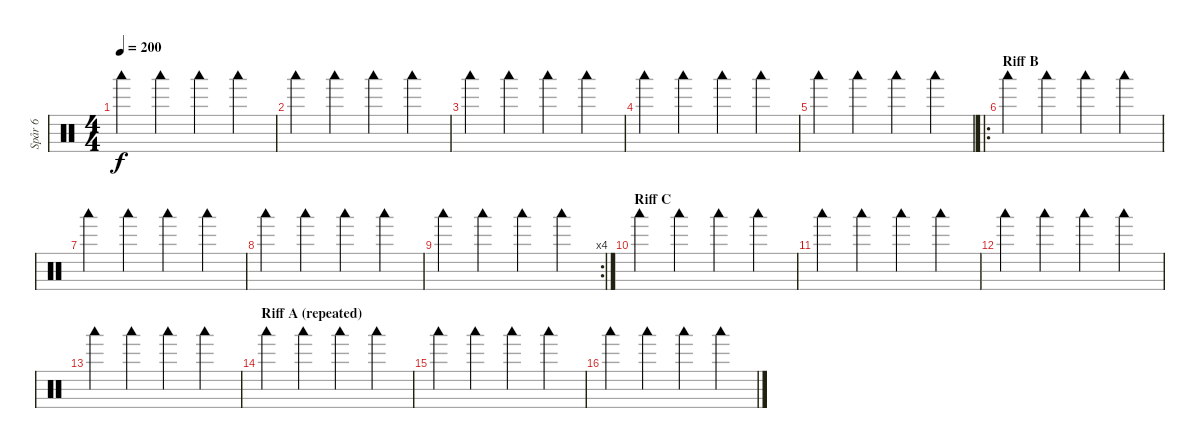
\track ("Spår 6" "Spår 6") {instrument percussion}
\staff {score}
\articulation defaults
\ts (4 4)
\tempo 200
\clef neutral
\ks c "Woodblock low (hit)".4{dy f} "Woodblock low (hit)".4 "Woodblock low (hit)".4 "Woodblock low (hit)".4
|
"Woodblock low (hit)".4 "Woodblock low (hit)".4 "Woodblock low (hit)".4 "Woodblock low (hit)".4 |
"Woodblock low (hit)".4 "Woodblock low (hit)".4 "Woodblock low (hit)".4 "Woodblock low (hit)".4 |
"Woodblock low (hit)".4 "Woodblock low (hit)".4 "Woodblock low (hit)".4 "Woodblock low (hit)".4 |
"Woodblock low (hit)".4 "Woodblock low (hit)".4 "Woodblock low (hit)".4 "Woodblock low (hit)".4 |
\ro
\section ("" "Riff B")
"Woodblock low (hit)".4 "Woodblock low (hit)".4 "Woodblock low (hit)".4 "Woodblock low (hit)".4 |
"Woodblock low (hit)".4 "Woodblock low (hit)".4 "Woodblock low (hit)".4 "Woodblock low (hit)".4 |
"Woodblock low (hit)".4 "Woodblock low (hit)".4 "Woodblock low (hit)".4 "Woodblock low (hit)".4 |
\rc 4 "Woodblock low (hit)".4 "Woodblock low (hit)".4 "Woodblock low (hit)".4 "Woodblock low (hit)".4
|
\section ("" "Riff C")
"Woodblock low (hit)".4 "Woodblock low (hit)".4 "Woodblock low (hit)".4 "Woodblock low (hit)".4 |
"Woodblock low (hit)".4 "Woodblock low (hit)".4 "Woodblock low (hit)".4 "Woodblock low (hit)".4 |
"Woodblock low (hit)".4 "Woodblock low (hit)".4 "Woodblock low (hit)".4 "Woodblock low (hit)".4 |
"Woodblock low (hit)".4 "Woodblock low (hit)".4 "Woodblock low (hit)".4 "Woodblock low (hit)".4 |
\section ("" "Riff A (repeated)")
"Woodblock low (hit)".4 "Woodblock low (hit)".4 "Woodblock low (hit)".4 "Woodblock low (hit)".4 |
"Woodblock low (hit)".4 "Woodblock low (hit)".4 "Woodblock low (hit)".4 "Woodblock low (hit)".4 |
"Woodblock low (hit)".4 "Woodblock low (hit)".4 "Woodblock low (hit)".4 "Woodblock low (hit)".4
